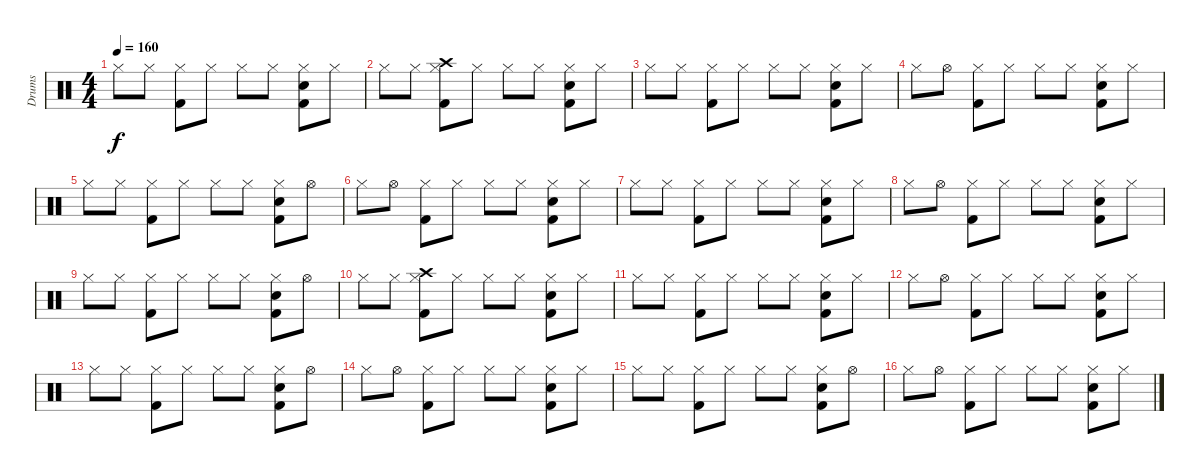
\track ("Drums" "Drums") {instrument percussion}
\staff {score}
\articulation defaults
\ts (4 4)
\tempo 160
\clef neutral
\ks c "Hi-Hat (closed)".8{dy f} "Hi-Hat (closed)".8
("Kick (hit) 2" "Hi-Hat (closed)").8 "Hi-Hat (closed)".8 "Hi-Hat (closed)".8 "Hi-Hat (closed)".8 ("Snare (hit) 2" "Kick (hit) 2" "Hi-Hat (closed)").8 "Hi-Hat (closed)".8 |
"Hi-Hat (closed)".8 "Hi-Hat (closed)".8 ("Crash high (hit)" "Kick (hit) 2" "Hi-Hat (closed)").8 "Hi-Hat (closed)".8 "Hi-Hat (closed)".8 "Hi-Hat (closed)".8 ("Snare (hit) 2" "Kick (hit) 2" "Hi-Hat (closed)").8 "Hi-Hat (closed)".8 |
"Hi-Hat (closed)".8 "Hi-Hat (closed)".8 ("Kick (hit) 2" "Hi-Hat (closed)").8 "Hi-Hat (closed)".8 "Hi-Hat (closed)".8 "Hi-Hat (closed)".8 ("Snare (hit) 2" "Kick (hit) 2" "Hi-Hat (closed)").8 "Hi-Hat (closed)".8 |
"Hi-Hat (closed)".8 "Hi-Hat (open)".8 ("Kick (hit) 2" "Hi-Hat (closed)").8 "Hi-Hat (closed)".8 "Hi-Hat (closed)".8 "Hi-Hat (closed)".8 ("Snare (hit) 2" "Kick (hit) 2" "Hi-Hat (closed)").8 "Hi-Hat (closed)".8 |
"Hi-Hat (closed)".8 "Hi-Hat (closed)".8 ("Kick (hit) 2" "Hi-Hat (closed)").8 "Hi-Hat (closed)".8 "Hi-Hat (closed)".8 "Hi-Hat (closed)".8 ("Snare (hit) 2" "Kick (hit) 2" "Hi-Hat (closed)").8 "Hi-Hat (open)".8 |
"Hi-Hat (closed)".8 "Hi-Hat (open)".8 ("Kick (hit) 2" "Hi-Hat (closed)").8 "Hi-Hat (closed)".8 "Hi-Hat (closed)".8 "Hi-Hat (closed)".8 ("Snare (hit) 2" "Kick (hit) 2" "Hi-Hat (closed)").8 "Hi-Hat (closed)".8 |
"Hi-Hat (closed)".8 "Hi-Hat (closed)".8 ("Kick (hit) 2" "Hi-Hat (closed)").8 "Hi-Hat (closed)".8 "Hi-Hat (closed)".8 "Hi-Hat (closed)".8 ("Snare (hit) 2" "Kick (hit) 2" "Hi-Hat (closed)").8 "Hi-Hat (closed)".8 |
"Hi-Hat (closed)".8 "Hi-Hat (open)".8 ("Kick (hit) 2" "Hi-Hat (closed)").8 "Hi-Hat (closed)".8 "Hi-Hat (closed)".8 "Hi-Hat (closed)".8 ("Snare (hit) 2" "Kick (hit) 2" "Hi-Hat (closed)").8 "Hi-Hat (closed)".8 |
"Hi-Hat (closed)".8 "Hi-Hat (closed)".8 ("Kick (hit) 2" "Hi-Hat (closed)").8 "Hi-Hat (closed)".8 "Hi-Hat (closed)".8 "Hi-Hat (closed)".8 ("Snare (hit) 2" "Kick (hit) 2" "Hi-Hat (closed)").8 "Hi-Hat (open)".8 |
"Hi-Hat (closed)".8 "Hi-Hat (closed)".8 ("Crash high (hit)" "Kick (hit) 2" "Hi-Hat (closed)").8 "Hi-Hat (closed)".8 "Hi-Hat (closed)".8 "Hi-Hat (closed)".8 ("Snare (hit) 2" "Kick (hit) 2" "Hi-Hat (closed)").8 "Hi-Hat (closed)".8 |
"Hi-Hat (closed)".8 "Hi-Hat (closed)".8 ("Kick (hit) 2" "Hi-Hat (closed)").8 "Hi-Hat (closed)".8 "Hi-Hat (closed)".8 "Hi-Hat (closed)".8 ("Snare (hit) 2" "Kick (hit) 2" "Hi-Hat (closed)").8 "Hi-Hat (closed)".8 |
"Hi-Hat (closed)".8 "Hi-Hat (open)".8 ("Kick (hit) 2" "Hi-Hat (closed)").8 "Hi-Hat (closed)".8 "Hi-Hat (closed)".8 "Hi-Hat (closed)".8 ("Snare (hit) 2" "Kick (hit) 2" "Hi-Hat (closed)").8 "Hi-Hat (closed)".8 |
"Hi-Hat (closed)".8 "Hi-Hat (closed)".8 ("Kick (hit) 2" "Hi-Hat (closed)").8 "Hi-Hat (closed)".8 "Hi-Hat (closed)".8 "Hi-Hat (closed)".8 ("Snare (hit) 2" "Kick (hit) 2" "Hi-Hat (closed)").8 "Hi-Hat (open)".8 |
"Hi-Hat (closed)".8 "Hi-Hat (open)".8 ("Kick (hit) 2" "Hi-Hat (closed)").8 "Hi-Hat (closed)".8 "Hi-Hat (closed)".8 "Hi-Hat (closed)".8 ("Snare (hit) 2" "Kick (hit) 2" "Hi-Hat (closed)").8 "Hi-Hat (closed)".8 |
"Hi-Hat (closed)".8 "Hi-Hat (closed)".8 ("Kick (hit) 2" "Hi-Hat (closed)").8 "Hi-Hat (closed)".8 "Hi-Hat (closed)".8 "Hi-Hat (closed)".8 ("Snare (hit) 2" "Kick (hit) 2" "Hi-Hat (closed)").8 "Hi-Hat (open)".8 |
"Hi-Hat (closed)".8 "Hi-Hat (open)".8 ("Kick (hit) 2" "Hi-Hat (closed)").8 "Hi-Hat (closed)".8 "Hi-Hat (closed)".8 "Hi-Hat (closed)".8 ("Snare (hit) 2" "Kick (hit) 2" "Hi-Hat (closed)").8 "Hi-Hat (closed)".8
